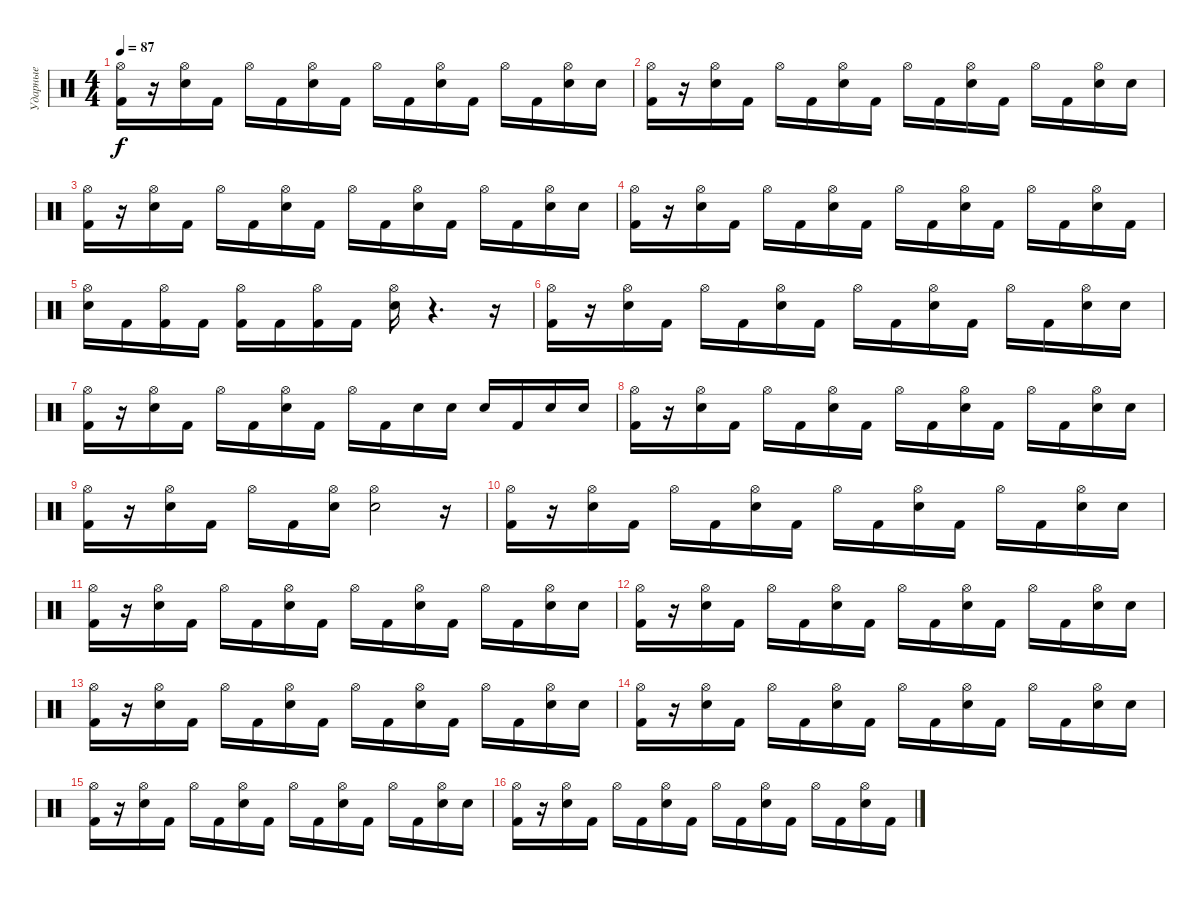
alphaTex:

\track ("Ударные" "Ударные") {instrument percussion}
\staff {score}
\articulation defaults
\ts (4 4)
\tempo 87
\clef neutral
\ks c
("Hi-Hat (open)" "Kick (hit) 2").16{dy f} r.16 ("Hi-Hat (open)" "Snare (hit) 2").16 "Kick (hit) 2".16 "Hi-Hat (open)".16 "Kick (hit) 2".16 ("Hi-Hat (open)" "Snare (hit) 2").16 "Kick (hit) 2".16 "Hi-Hat (open)".16 "Kick (hit) 2".16 ("Hi-Hat (open)" "Snare (hit) 2").16 "Kick (hit) 2".16 "Hi-Hat (open)".16 "Kick (hit) 2".16 ("Hi-Hat (open)" "Snare (hit) 2").16 "Snare (hit) 2".16 |
("Hi-Hat (open)" "Kick (hit) 2").16 r.16 ("Hi-Hat (open)" "Snare (hit) 2").16 "Kick (hit) 2".16 "Hi-Hat (open)".16 "Kick (hit) 2".16 ("Hi-Hat (open)" "Snare (hit) 2").16 "Kick (hit) 2".16 "Hi-Hat (open)".16 "Kick (hit) 2".16 ("Hi-Hat (open)" "Snare (hit) 2").16 "Kick (hit) 2".16 "Hi-Hat (open)".16 "Kick (hit) 2".16 ("Hi-Hat (open)" "Snare (hit) 2").16 "Snare (hit) 2".16 |
("Hi-Hat (open)" "Kick (hit) 2").16 r.16 ("Hi-Hat (open)" "Snare (hit) 2").16 "Kick (hit) 2".16 "Hi-Hat (open)".16 "Kick (hit) 2".16 ("Hi-Hat (open)" "Snare (hit) 2").16 "Kick (hit) 2".16 "Hi-Hat (open)".16 "Kick (hit) 2".16 ("Hi-Hat (open)" "Snare (hit) 2").16 "Kick (hit) 2".16 "Hi-Hat (open)".16 "Kick (hit) 2".16 ("Hi-Hat (open)" "Snare (hit) 2").16 "Snare (hit) 2".16 |
("Hi-Hat (open)" "Kick (hit) 2").16 r.16 ("Hi-Hat (open)" "Snare (hit) 2").16 "Kick (hit) 2".16 "Hi-Hat (open)".16 "Kick (hit) 2".16 ("Hi-Hat (open)" "Snare (hit) 2").16 "Kick (hit) 2".16 "Hi-Hat (open)".16 "Kick (hit) 2".16 ("Hi-Hat (open)" "Snare (hit) 2").16 "Kick (hit) 2".16 "Hi-Hat (open)".16 "Kick (hit) 2".16 ("Hi-Hat (open)" "Snare (hit) 2").16 "Kick (hit) 2".16 |
("Hi-Hat (open)" "Snare (hit) 2").16 "Kick (hit) 2".16 ("Hi-Hat (open)" "Kick (hit) 2").16 "Kick (hit) 2".16 ("Hi-Hat (open)" "Kick (hit) 2").16 "Kick (hit) 2".16 ("Hi-Hat (open)" "Kick (hit) 2").16 "Kick (hit) 2".16 ("Hi-Hat (open)" "Snare (hit) 2").16 r.4{d} r.16 |
("Hi-Hat (open)" "Kick (hit) 2").16 r.16 ("Hi-Hat (open)" "Snare (hit) 2").16 "Kick (hit) 2".16 "Hi-Hat (open)".16 "Kick (hit) 2".16 ("Hi-Hat (open)" "Snare (hit) 2").16 "Kick (hit) 2".16 "Hi-Hat (open)".16 "Kick (hit) 2".16 ("Hi-Hat (open)" "Snare (hit) 2").16 "Kick (hit) 2".16 "Hi-Hat (open)".16 "Kick (hit) 2".16 ("Hi-Hat (open)" "Snare (hit) 2").16 "Snare (hit) 2".16 |
("Hi-Hat (open)" "Kick (hit) 2").16 r.16 ("Hi-Hat (open)" "Snare (hit) 2").16 "Kick (hit) 2".16 "Hi-Hat (open)".16 "Kick (hit) 2".16 ("Hi-Hat (open)" "Snare (hit) 2").16 "Kick (hit) 2".16 "Hi-Hat (open)".16 "Kick (hit) 2".16 "Snare (hit) 2".16 "Snare (hit) 2".16 "Snare (hit) 2".16 "Kick (hit) 2".16 "Snare (hit) 2".16 "Snare (hit) 2".16 |
("Hi-Hat (open)" "Kick (hit) 2").16 r.16 ("Hi-Hat (open)" "Snare (hit) 2").16 "Kick (hit) 2".16 "Hi-Hat (open)".16 "Kick (hit) 2".16 ("Hi-Hat (open)" "Snare (hit) 2").16 "Kick (hit) 2".16 "Hi-Hat (open)".16 "Kick (hit) 2".16 ("Hi-Hat (open)" "Snare (hit) 2").16 "Kick (hit) 2".16 "Hi-Hat (open)".16 "Kick (hit) 2".16 ("Hi-Hat (open)" "Snare (hit) 2").16 "Snare (hit) 2".16 |
("Hi-Hat (open)" "Kick (hit) 2").16 r.16 ("Hi-Hat (open)" "Snare (hit) 2").16 "Kick (hit) 2".16 "Hi-Hat (open)".16 "Kick (hit) 2".16 ("Hi-Hat (open)" "Snare (hit) 2").16 ("Hi-Hat (open)" "Snare (hit) 2").2 r.16 |
("Hi-Hat (open)" "Kick (hit) 2").16 r.16 ("Hi-Hat (open)" "Snare (hit) 2").16 "Kick (hit) 2".16 "Hi-Hat (open)".16 "Kick (hit) 2".16 ("Hi-Hat (open)" "Snare (hit) 2").16 "Kick (hit) 2".16 "Hi-Hat (open)".16 "Kick (hit) 2".16 ("Hi-Hat (open)" "Snare (hit) 2").16 "Kick (hit) 2".16 "Hi-Hat (open)".16 "Kick (hit) 2".16 ("Hi-Hat (open)" "Snare (hit) 2").16 "Snare (hit) 2".16 |
("Hi-Hat (open)" "Kick (hit) 2").16 r.16 ("Hi-Hat (open)" "Snare (hit) 2").16 "Kick (hit) 2".16 "Hi-Hat (open)".16 "Kick (hit) 2".16 ("Hi-Hat (open)" "Snare (hit) 2").16 "Kick (hit) 2".16 "Hi-Hat (open)".16 "Kick (hit) 2".16 ("Hi-Hat (open)" "Snare (hit) 2").16 "Kick (hit) 2".16 "Hi-Hat (open)".16 "Kick (hit) 2".16 ("Hi-Hat (open)" "Snare (hit) 2").16 "Snare (hit) 2".16 |
("Hi-Hat (open)" "Kick (hit) 2").16 r.16 ("Hi-Hat (open)" "Snare (hit) 2").16 "Kick (hit) 2".16 "Hi-Hat (open)".16 "Kick (hit) 2".16 ("Hi-Hat (open)" "Snare (hit) 2").16 "Kick (hit) 2".16 "Hi-Hat (open)".16 "Kick (hit) 2".16 ("Hi-Hat (open)" "Snare (hit) 2").16 "Kick (hit) 2".16 "Hi-Hat (open)".16 "Kick (hit) 2".16 ("Hi-Hat (open)" "Snare (hit) 2").16 "Snare (hit) 2".16 |
("Hi-Hat (open)" "Kick (hit) 2").16 r.16 ("Hi-Hat (open)" "Snare (hit) 2").16 "Kick (hit) 2".16 "Hi-Hat (open)".16 "Kick (hit) 2".16 ("Hi-Hat (open)" "Snare (hit) 2").16 "Kick (hit) 2".16 "Hi-Hat (open)".16 "Kick (hit) 2".16 ("Hi-Hat (open)" "Snare (hit) 2").16 "Kick (hit) 2".16 "Hi-Hat (open)".16 "Kick (hit) 2".16 ("Hi-Hat (open)" "Snare (hit) 2").16 "Snare (hit) 2".16 |
("Hi-Hat (open)" "Kick (hit) 2").16 r.16 ("Hi-Hat (open)" "Snare (hit) 2").16 "Kick (hit) 2".16 "Hi-Hat (open)".16 "Kick (hit) 2".16 ("Hi-Hat (open)" "Snare (hit) 2").16 "Kick (hit) 2".16 "Hi-Hat (open)".16 "Kick (hit) 2".16 ("Hi-Hat (open)" "Snare (hit) 2").16 "Kick (hit) 2".16 "Hi-Hat (open)".16 "Kick (hit) 2".16 ("Hi-Hat (open)" "Snare (hit) 2").16 "Snare (hit) 2".16 |
("Hi-Hat (open)" "Kick (hit) 2").16 r.16 ("Hi-Hat (open)" "Snare (hit) 2").16 "Kick (hit) 2".16 "Hi-Hat (open)".16 "Kick (hit) 2".16 ("Hi-Hat (open)" "Snare (hit) 2").16 "Kick (hit) 2".16 "Hi-Hat (open)".16 "Kick (hit) 2".16 ("Hi-Hat (open)" "Snare (hit) 2").16 "Kick (hit) 2".16 "Hi-Hat (open)".16 "Kick (hit) 2".16 ("Hi-Hat (open)" "Snare (hit) 2").16 "Snare (hit) 2".16 |
("Hi-Hat (open)" "Kick (hit) 2").16 r.16 ("Hi-Hat (open)" "Snare (hit) 2").16 "Kick (hit) 2".16 "Hi-Hat (open)".16 "Kick (hit) 2".16 ("Hi-Hat (open)" "Snare (hit) 2").16 "Kick (hit) 2".16 "Hi-Hat (open)".16 "Kick (hit) 2".16 ("Hi-Hat (open)" "Snare (hit) 2").16 "Kick (hit) 2".16 "Hi-Hat (open)".16 "Kick (hit) 2".16 ("Hi-Hat (open)" "Snare (hit) 2").16 "Kick (hit) 2".16
